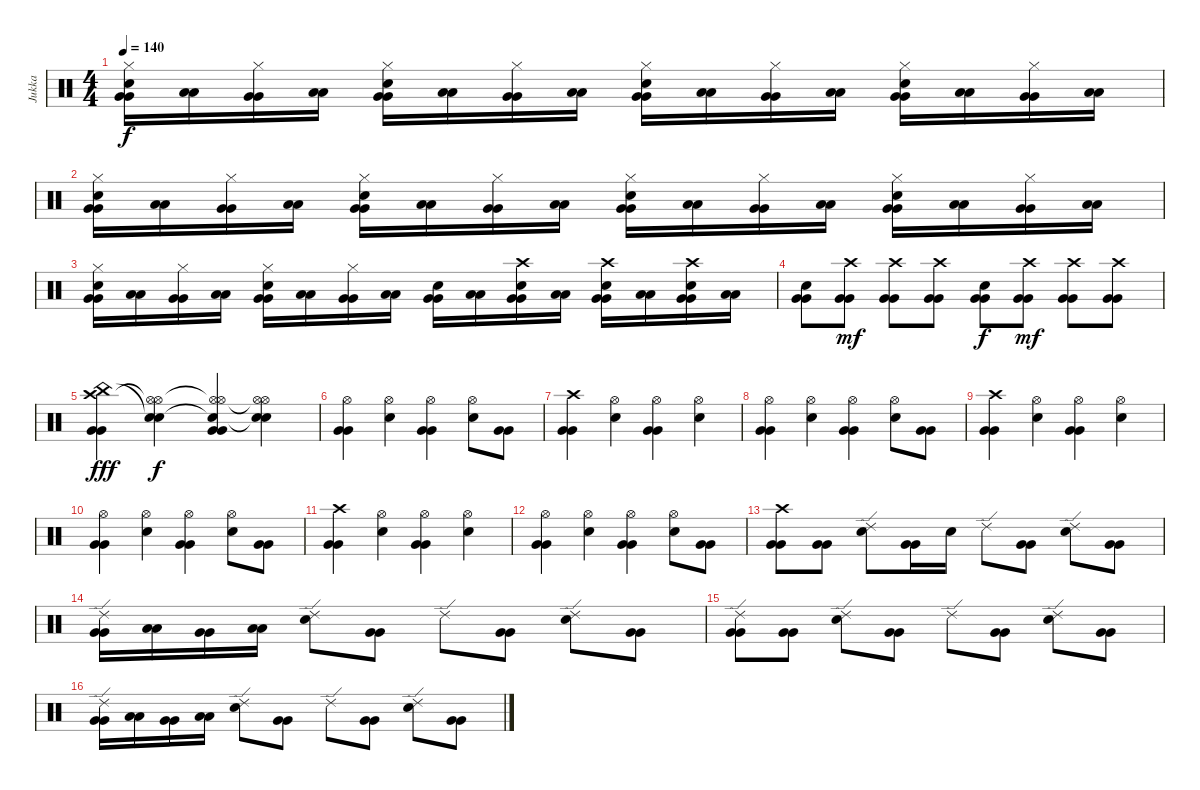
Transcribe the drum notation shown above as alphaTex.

\track ("Jukka" "Jukka") {instrument percussion}
\staff {score}
\articulation defaults
\ts (4 4)
\tempo 140
\clef neutral
\ks c
("Hi-Hat (closed)" "Electric Snare (hit)" "Very Low Tom (hit)" "Very Low Tom (hit)").16{dy f} ("Low Floor Tom (hit)" "Low Floor Tom (hit)").16 ("Hi-Hat (closed)" "Very Low Tom (hit)" "Very Low Tom (hit)").16 ("Low Floor Tom (hit)" "Low Floor Tom (hit)").16 ("Hi-Hat (closed)" "Electric Snare (hit)" "Very Low Tom (hit)" "Very Low Tom (hit)").16 ("Low Floor Tom (hit)" "Low Floor Tom (hit)").16 ("Hi-Hat (closed)" "Very Low Tom (hit)" "Very Low Tom (hit)").16 ("Low Floor Tom (hit)" "Low Floor Tom (hit)").16 ("Hi-Hat (closed)" "Electric Snare (hit)" "Very Low Tom (hit)" "Very Low Tom (hit)").16 ("Low Floor Tom (hit)" "Low Floor Tom (hit)").16 ("Hi-Hat (closed)" "Very Low Tom (hit)" "Very Low Tom (hit)").16 ("Low Floor Tom (hit)" "Low Floor Tom (hit)").16 ("Hi-Hat (closed)" "Electric Snare (hit)" "Very Low Tom (hit)" "Very Low Tom (hit)").16 ("Low Floor Tom (hit)" "Low Floor Tom (hit)").16 ("Hi-Hat (closed)" "Very Low Tom (hit)" "Very Low Tom (hit)").16 ("Low Floor Tom (hit)" "Low Floor Tom (hit)").16 |
("Hi-Hat (closed)" "Electric Snare (hit)" "Very Low Tom (hit)" "Very Low Tom (hit)").16 ("Low Floor Tom (hit)" "Low Floor Tom (hit)").16 ("Hi-Hat (closed)" "Very Low Tom (hit)" "Very Low Tom (hit)").16 ("Low Floor Tom (hit)" "Low Floor Tom (hit)").16 ("Hi-Hat (closed)" "Electric Snare (hit)" "Very Low Tom (hit)" "Very Low Tom (hit)").16 ("Low Floor Tom (hit)" "Low Floor Tom (hit)").16 ("Hi-Hat (closed)" "Very Low Tom (hit)" "Very Low Tom (hit)").16 ("Low Floor Tom (hit)" "Low Floor Tom (hit)").16 ("Hi-Hat (closed)" "Electric Snare (hit)" "Very Low Tom (hit)" "Very Low Tom (hit)").16 ("Low Floor Tom (hit)" "Low Floor Tom (hit)").16 ("Hi-Hat (closed)" "Very Low Tom (hit)" "Very Low Tom (hit)").16 ("Low Floor Tom (hit)" "Low Floor Tom (hit)").16 ("Hi-Hat (closed)" "Electric Snare (hit)" "Very Low Tom (hit)" "Very Low Tom (hit)").16 ("Low Floor Tom (hit)" "Low Floor Tom (hit)").16 ("Hi-Hat (closed)" "Very Low Tom (hit)" "Very Low Tom (hit)").16 ("Low Floor Tom (hit)" "Low Floor Tom (hit)").16 |
("Hi-Hat (closed)" "Electric Snare (hit)" "Very Low Tom (hit)" "Very Low Tom (hit)").16 ("Low Floor Tom (hit)" "Low Floor Tom (hit)").16 ("Hi-Hat (closed)" "Very Low Tom (hit)" "Very Low Tom (hit)").16 ("Low Floor Tom (hit)" "Low Floor Tom (hit)").16 ("Hi-Hat (closed)" "Electric Snare (hit)" "Very Low Tom (hit)" "Very Low Tom (hit)").16 ("Low Floor Tom (hit)" "Low Floor Tom (hit)").16 ("Hi-Hat (closed)" "Very Low Tom (hit)" "Very Low Tom (hit)").16 ("Low Floor Tom (hit)" "Low Floor Tom (hit)").16 ("Electric Snare (hit)" "Very Low Tom (hit)" "Very Low Tom (hit)").16 ("Low Floor Tom (hit)" "Low Floor Tom (hit)").16 ("Crash high (hit)" "Electric Snare (hit)" "Very Low Tom (hit)" "Very Low Tom (hit)").16 ("Low Floor Tom (hit)" "Low Floor Tom (hit)").16 ("Crash high (hit)" "Electric Snare (hit)" "Very Low Tom (hit)" "Very Low Tom (hit)").16 ("Low Floor Tom (hit)" "Low Floor Tom (hit)").16 ("Crash high (hit)" "Electric Snare (hit)" "Very Low Tom (hit)" "Very Low Tom (hit)").16 ("Low Floor Tom (hit)" "Low Floor Tom (hit)").16 |
("Electric Snare (hit)" "Very Low Tom (hit)" "Very Low Tom (hit)").8 ("Crash high (hit)" "Very Low Tom (hit)" "Very Low Tom (hit)").8{dy mf} ("Crash high (hit)" "Very Low Tom (hit)" "Very Low Tom (hit)").8 ("Crash high (hit)" "Very Low Tom (hit)" "Very Low Tom (hit)").8 ("Electric Snare (hit)" "Very Low Tom (hit)" "Very Low Tom (hit)").8{dy f} ("Crash high (hit)" "Very Low Tom (hit)" "Very Low Tom (hit)").8{dy mf} ("Crash high (hit)" "Very Low Tom (hit)" "Very Low Tom (hit)").8 ("Crash high (hit)" "Very Low Tom (hit)" "Very Low Tom (hit)").8 |
("Crash high (hit)" "China (hit)" "Very Low Tom (hit)" "Very Low Tom (hit)").4{dy fff} ("Hi-Hat (open)"{t} "Snare (hit)"{t} "Electric Snare (hit)" "Hi-Hat (open)").4{dy f} ("Hi-Hat (open)"{t} "Snare (hit)"{t} "Hi-Hat (open)" "Very Low Tom (hit)" "Very Low Tom (hit)").4 ("Hi-Hat (open)"{t} "Snare (hit)"{t} "Electric Snare (hit)" "Hi-Hat (open)").4 |
("Hi-Hat (open)" "Very Low Tom (hit)" "Very Low Tom (hit)").4 ("Hi-Hat (open)" "Electric Snare (hit)").4 ("Hi-Hat (open)" "Very Low Tom (hit)" "Very Low Tom (hit)").4 ("Hi-Hat (open)" "Electric Snare (hit)").8 ("Very Low Tom (hit)" "Very Low Tom (hit)").8 |
("Crash high (hit)" "Very Low Tom (hit)" "Very Low Tom (hit)").4 ("Hi-Hat (open)" "Electric Snare (hit)").4 ("Hi-Hat (open)" "Very Low Tom (hit)" "Very Low Tom (hit)").4 ("Hi-Hat (open)" "Electric Snare (hit)").4 |
("Hi-Hat (open)" "Very Low Tom (hit)" "Very Low Tom (hit)").4 ("Hi-Hat (open)" "Electric Snare (hit)").4 ("Hi-Hat (open)" "Very Low Tom (hit)" "Very Low Tom (hit)").4 ("Hi-Hat (open)" "Electric Snare (hit)").8 ("Very Low Tom (hit)" "Very Low Tom (hit)").8 |
("Crash high (hit)" "Very Low Tom (hit)" "Very Low Tom (hit)").4 ("Hi-Hat (open)" "Electric Snare (hit)").4 ("Hi-Hat (open)" "Very Low Tom (hit)" "Very Low Tom (hit)").4 ("Hi-Hat (open)" "Electric Snare (hit)").4 |
("Hi-Hat (open)" "Very Low Tom (hit)" "Very Low Tom (hit)").4 ("Hi-Hat (open)" "Electric Snare (hit)").4 ("Hi-Hat (open)" "Very Low Tom (hit)" "Very Low Tom (hit)").4 ("Hi-Hat (open)" "Electric Snare (hit)").8 ("Very Low Tom (hit)" "Very Low Tom (hit)").8 |
("Crash high (hit)" "Very Low Tom (hit)" "Very Low Tom (hit)").4 ("Hi-Hat (open)" "Electric Snare (hit)").4 ("Hi-Hat (open)" "Very Low Tom (hit)" "Very Low Tom (hit)").4 ("Hi-Hat (open)" "Electric Snare (hit)").4 |
("Hi-Hat (open)" "Very Low Tom (hit)" "Very Low Tom (hit)").4 ("Hi-Hat (open)" "Electric Snare (hit)").4 ("Hi-Hat (open)" "Very Low Tom (hit)" "Very Low Tom (hit)").4 ("Hi-Hat (open)" "Electric Snare (hit)").8 ("Very Low Tom (hit)" "Very Low Tom (hit)").8 |
("Crash high (hit)" "Very Low Tom (hit)" "Very Low Tom (hit)").8 ("Very Low Tom (hit)" "Very Low Tom (hit)").8 ("Ride (edge) 2" "Electric Snare (hit)").8 ("Very Low Tom (hit)" "Very Low Tom (hit)").16 "Electric Snare (hit)".16 "Ride (edge) 2".8 ("Very Low Tom (hit)" "Very Low Tom (hit)").8 ("Ride (edge) 2" "Electric Snare (hit)").8 ("Very Low Tom (hit)" "Very Low Tom (hit)").8 |
("Ride (edge) 2" "Very Low Tom (hit)" "Very Low Tom (hit)").16 ("Low Floor Tom (hit)" "Low Floor Tom (hit)").16 ("Very Low Tom (hit)" "Very Low Tom (hit)").16 ("Low Floor Tom (hit)" "Low Floor Tom (hit)").16 ("Ride (edge) 2" "Electric Snare (hit)").8 ("Very Low Tom (hit)" "Very Low Tom (hit)").8 "Ride (edge) 2".8 ("Very Low Tom (hit)" "Very Low Tom (hit)").8 ("Ride (edge) 2" "Electric Snare (hit)").8 ("Very Low Tom (hit)" "Very Low Tom (hit)").8 |
("Ride (edge) 2" "Very Low Tom (hit)" "Very Low Tom (hit)").8 ("Very Low Tom (hit)" "Very Low Tom (hit)").8 ("Ride (edge) 2" "Electric Snare (hit)").8 ("Very Low Tom (hit)" "Very Low Tom (hit)").8 "Ride (edge) 2".8 ("Very Low Tom (hit)" "Very Low Tom (hit)").8 ("Ride (edge) 2" "Electric Snare (hit)").8 ("Very Low Tom (hit)" "Very Low Tom (hit)").8 |
("Ride (edge) 2" "Very Low Tom (hit)" "Very Low Tom (hit)").16 ("Low Floor Tom (hit)" "Low Floor Tom (hit)").16 ("Very Low Tom (hit)" "Very Low Tom (hit)").16 ("Low Floor Tom (hit)" "Low Floor Tom (hit)").16 ("Ride (edge) 2" "Electric Snare (hit)").8 ("Very Low Tom (hit)" "Very Low Tom (hit)").8 "Ride (edge) 2".8 ("Very Low Tom (hit)" "Very Low Tom (hit)").8 ("Ride (edge) 2" "Electric Snare (hit)").8 ("Very Low Tom (hit)" "Very Low Tom (hit)").8
